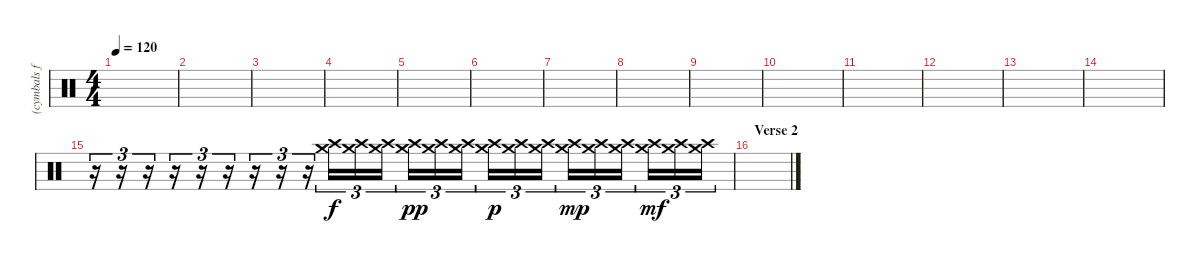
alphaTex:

\track ("(cymbals fx)" "(cymbals f") {instrument percussion}
\staff {score}
\articulation defaults
\ts (4 4)
\tempo 120
\clef neutral
\ks c
|
|
|
|
|
|
|
|
|
|
|
|
|
|
r.16{tu (3 2)} r.16{tu (3 2)} r.16{tu (3 2)} r.16{tu (3 2)} r.16{tu (3 2)} r.16{tu (3 2)} r.16{tu (3 2)} r.16{tu (3 2)} r.16{tu (3 2)} ("Crash medium (hit)" "Crash high (hit)").16{tu (3 2)} ("Crash medium (hit)" "Crash high (hit)").16{tu (3 2)} ("Crash medium (hit)" "Crash high (hit)").16{tu (3 2)} ("Crash medium (hit)" "Crash high (hit)").16{tu (3 2) dy pp} ("Crash medium (hit)" "Crash high (hit)").16{tu (3 2)} ("Crash medium (hit)" "Crash high (hit)").16{tu (3 2)} ("Crash medium (hit)" "Crash high (hit)").16{tu (3 2) dy p} ("Crash medium (hit)" "Crash high (hit)").16{tu (3 2)} ("Crash medium (hit)" "Crash high (hit)").16{tu (3 2)} ("Crash medium (hit)" "Crash high (hit)").16{tu (3 2) dy mp} ("Crash medium (hit)" "Crash high (hit)").16{tu (3 2)} ("Crash medium (hit)" "Crash high (hit)").16{tu (3 2)} ("Crash medium (hit)" "Crash high (hit)").16{tu (3 2) dy mf} ("Crash medium (hit)" "Crash high (hit)").16{tu (3 2)} ("Crash medium (hit)" "Crash high (hit)").16{tu (3 2)} |
\section ("" "Verse 2")
